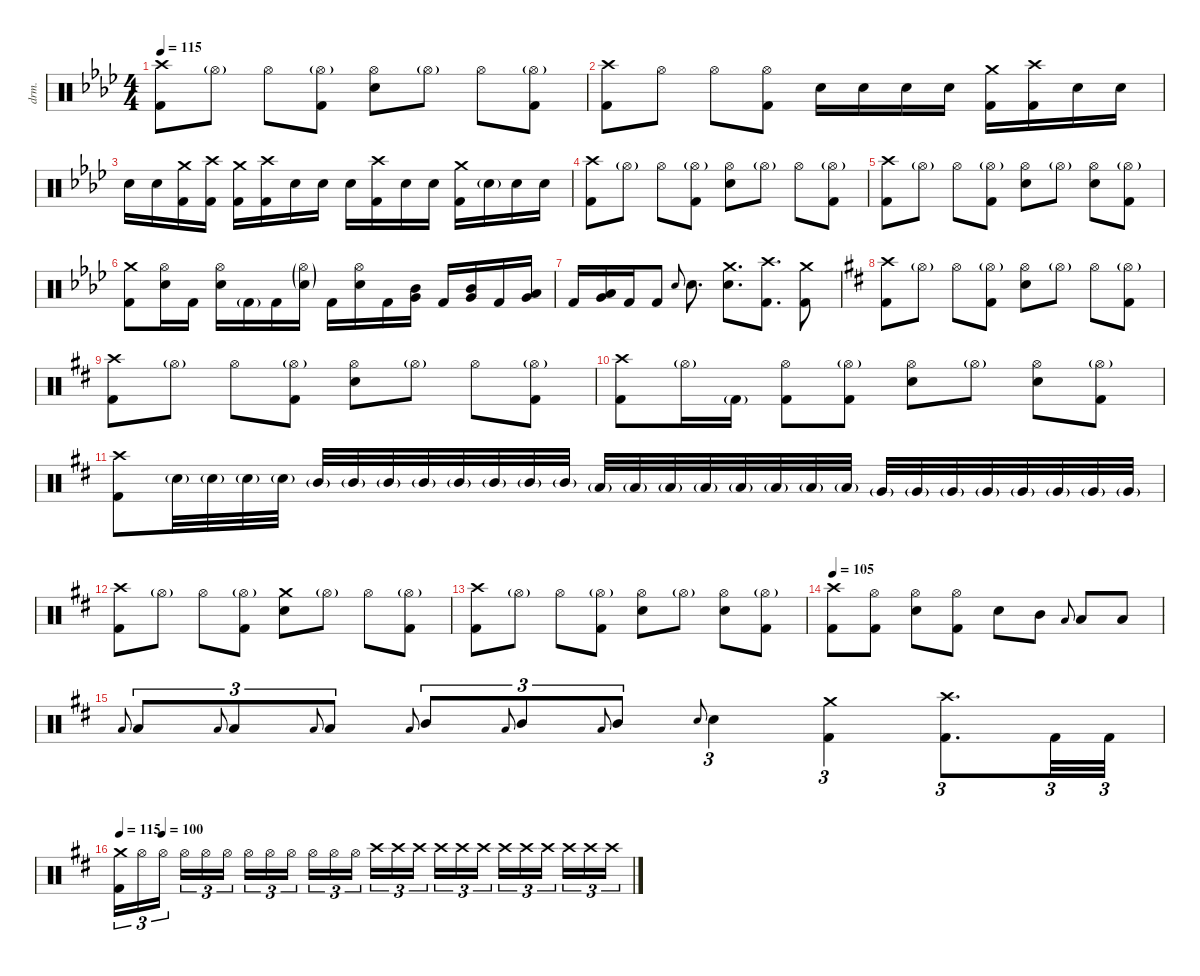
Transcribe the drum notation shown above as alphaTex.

\defaultSystemsLayout 4
\hideDynamics
\bracketExtendMode nobrackets
\track ("Atma Anur" "drm.") {solo instrument percussion}
\staff {score}
\articulation defaults
\ts (4 4)
\tempo 115
\clef neutral
\ks fminor
("Crash high (hit)"{acc forcenatural} "Kick (hit) 2"{acc forcenatural}).8{dy fff beam Down} "Hi-Hat (open)"{g acc forcenatural}.8{dy ff beam Down} "Hi-Hat (open)"{acc forcenatural}.8{dy fff beam Down} ("Hi-Hat (open)"{g acc forcenatural} "Kick (hit) 2"{acc forcenatural}).8{beam Down} ("Hi-Hat (open)"{acc forcenatural} "Snare (hit) 2"{acc forcenatural}).8{beam Down} "Hi-Hat (open)"{g acc forcenatural}.8{dy ff beam Down} "Hi-Hat (open)"{acc forcenatural}.8{dy fff beam Down} ("Hi-Hat (open)"{g acc forcenatural} "Kick (hit) 2"{acc forcenatural}).8{beam Down} |
("Crash high (hit)"{acc forcenatural} "Kick (hit) 2"{acc forcenatural}).8{beam Down} "Hi-Hat (open)"{acc forcenatural}.8{beam Down} "Hi-Hat (open)"{acc forcenatural}.8{beam Down} ("Hi-Hat (open)"{acc forcenatural} "Kick (hit) 2"{acc forcenatural}).8{beam Down} "Snare (hit) 2"{acc forcenatural}.16{beam Down} "Snare (hit) 2"{acc forcenatural}.16{beam Down} "Snare (hit) 2"{acc forcenatural}.16{beam Down} "Snare (hit) 2"{acc forcenatural}.16{beam Down} ("Crash medium (hit)"{acc forcenatural} "Kick (hit) 2"{acc forcenatural}).16{beam Down} ("Crash high (hit)"{acc forcenatural} "Kick (hit) 2"{acc forcenatural}).16{beam Down} "Snare (hit) 2"{acc forcenatural}.16{beam Down} "Snare (hit) 2"{acc forcenatural}.16{beam Down} |
"Snare (hit) 2"{acc forcenatural}.16{beam Down} "Snare (hit) 2"{acc forcenatural}.16{beam Down} ("Crash medium (hit)"{acc forcenatural} "Kick (hit) 2"{acc forcenatural}).16{beam Down} ("Crash high (hit)"{acc forcenatural} "Kick (hit) 2"{acc forcenatural}).16{beam Down} ("Crash medium (hit)"{acc forcenatural} "Kick (hit) 2"{acc forcenatural}).16{beam Down} ("Crash high (hit)"{acc forcenatural} "Kick (hit) 2"{acc forcenatural}).16{beam Down} "Snare (hit) 2"{acc forcenatural}.16{beam Down} "Snare (hit) 2"{acc forcenatural}.16{beam Down} "Snare (hit) 2"{acc forcenatural}.16{beam Down} ("Crash high (hit)"{acc forcenatural} "Kick (hit) 2"{acc forcenatural}).16{beam Down} "Snare (hit) 2"{acc forcenatural}.16{beam Down} "Snare (hit) 2"{acc forcenatural}.16{beam Down} ("Crash medium (hit)"{acc forcenatural} "Kick (hit) 2"{acc forcenatural}).16{beam Down} "Snare (hit) 2"{g acc forcenatural}.16{dy ff beam Down} "Snare (hit) 2"{acc forcenatural}.16{dy fff beam Down} "Snare (hit) 2"{acc forcenatural}.16{beam Down} |
("Crash high (hit)"{acc forcenatural} "Kick (hit) 2"{acc forcenatural}).8{beam Down} "Hi-Hat (open)"{g acc forcenatural}.8{dy ff beam Down} "Hi-Hat (open)"{acc forcenatural}.8{dy fff beam Down} ("Hi-Hat (open)"{g acc forcenatural} "Kick (hit) 2"{acc forcenatural}).8{beam Down} ("Hi-Hat (open)"{acc forcenatural} "Snare (hit) 2"{acc forcenatural}).8{beam Down} "Hi-Hat (open)"{g acc forcenatural}.8{dy ff beam Down} "Hi-Hat (open)"{acc forcenatural}.8{dy fff beam Down} ("Hi-Hat (open)"{g acc forcenatural} "Kick (hit) 2"{acc forcenatural}).8{beam Down} |
("Crash high (hit)"{acc forcenatural} "Kick (hit) 2"{acc forcenatural}).8{beam Down} "Hi-Hat (open)"{g acc forcenatural}.8{dy ff beam Down} "Hi-Hat (open)"{acc forcenatural}.8{dy fff beam Down} ("Hi-Hat (open)"{g acc forcenatural} "Kick (hit) 2"{acc forcenatural}).8{beam Down} ("Hi-Hat (open)"{acc forcenatural} "Snare (hit) 2"{acc forcenatural}).8{beam Down} "Hi-Hat (open)"{g acc forcenatural}.8{dy ff beam Down} ("Hi-Hat (open)"{acc forcenatural} "Snare (hit) 2"{acc forcenatural}).8{dy fff beam Down} ("Hi-Hat (open)"{g acc forcenatural} "Kick (hit) 2"{acc forcenatural}).8{beam Down} |
("Crash medium (hit)"{acc forcenatural} "Kick (hit) 2"{acc forcenatural}).8{beam Down} ("Hi-Hat (open)"{acc forcenatural} "Snare (hit) 2"{acc forcenatural}).16{beam Down} "Kick (hit) 2"{acc forcenatural}.16{beam Down} ("Hi-Hat (open)"{acc forcenatural} "Snare (hit) 2"{acc forcenatural}).16{beam Down} "Kick (hit) 2"{g acc forcenatural}.16{dy ff beam Down} "Kick (hit) 2"{acc forcenatural}.16{dy fff beam Down} ("Hi-Hat (open)"{g acc forcenatural} "Snare (hit) 2"{g acc forcenatural}).16{dy ff beam Down} "Kick (hit) 2"{acc forcenatural}.16{dy fff beam Down} ("Hi-Hat (open)"{acc forcenatural} "Snare (hit) 2"{acc forcenatural}).16{beam Down} "Kick (hit) 2"{acc forcenatural}.16{beam Down} ("Mid Tom (hit)"{acc forcenatural} "Very Low Tom (hit)"{acc forcenatural}).16{beam Down} "Kick (hit) 2"{acc forcenatural}.16{beam Up} ("Mid Tom (hit)"{acc forcenatural} "Very Low Tom (hit)"{acc forcenatural}).16{beam Up} "Kick (hit) 2"{acc forcenatural}.16{beam Up} ("Low Tom (hit)"{acc forcenatural} "Very Low Tom (hit)"{acc forcenatural}).16{beam Up} |
"Kick (hit) 2"{acc forcenatural}.16{beam Up} ("Low Tom (hit)"{acc forcenatural} "Very Low Tom (hit)"{acc forcenatural}).16{beam Up} "Kick (hit) 2"{acc forcenatural}.16{beam Up} "Kick (hit) 2"{acc forcenatural}.8{beam Up} "Electric Snare (hit)"{acc forcenatural}.8{gr onbeat dy ff beam Up} "Snare (hit) 2"{acc forcenatural}.8{d dy fff beam Down} ("Crash medium (hit)"{acc forcenatural} "Snare (hit) 2"{acc forcenatural}).8{d beam Down} ("Crash high (hit)"{acc forcenatural} "Kick (hit) 2"{acc forcenatural}).8{d beam Down} ("Crash medium (hit)"{acc forcenatural} "Kick (hit) 2"{acc forcenatural}).8{beam Down} |
\ks bminor
("Crash high (hit)"{acc forcenatural} "Kick (hit) 2"{acc forcenatural}).8{beam Down} "Hi-Hat (open)"{g acc forcenatural}.8{dy ff beam Down} "Hi-Hat (open)"{acc forcenatural}.8{dy fff beam Down} ("Hi-Hat (open)"{g acc forcenatural} "Kick (hit) 2"{acc forcenatural}).8{beam Down} ("Hi-Hat (open)"{acc forcenatural} "Snare (hit) 2"{acc forcenatural}).8{beam Down} "Hi-Hat (open)"{g acc forcenatural}.8{dy ff beam Down} "Hi-Hat (open)"{acc forcenatural}.8{dy fff beam Down} ("Hi-Hat (open)"{g acc forcenatural} "Kick (hit) 2"{acc forcenatural}).8{beam Down} |
("Crash high (hit)"{acc forcenatural} "Kick (hit) 2"{acc forcenatural}).8{beam Down} "Hi-Hat (open)"{g acc forcenatural}.8{dy ff beam Down} "Hi-Hat (open)"{acc forcenatural}.8{dy fff beam Down} ("Hi-Hat (open)"{g acc forcenatural} "Kick (hit) 2"{acc forcenatural}).8{beam Down} ("Hi-Hat (open)"{acc forcenatural} "Snare (hit) 2"{acc forcenatural}).8{beam Down} "Hi-Hat (open)"{g acc forcenatural}.8{dy ff beam Down} "Hi-Hat (open)"{acc forcenatural}.8{dy fff beam Down} ("Hi-Hat (open)"{g acc forcenatural} "Kick (hit) 2"{acc forcenatural}).8{beam Down} |
("Crash high (hit)"{acc forcenatural} "Kick (hit) 2"{acc forcenatural}).8{beam Down} "Hi-Hat (open)"{g acc forcenatural}.16{dy ff beam Down} "Kick (hit) 2"{g acc forcenatural}.16{beam Down} ("Hi-Hat (open)"{acc forcenatural} "Kick (hit) 2"{acc forcenatural}).8{dy fff beam Down} ("Hi-Hat (open)"{g acc forcenatural} "Kick (hit) 2"{acc forcenatural}).8{beam Down} ("Hi-Hat (open)"{acc forcenatural} "Snare (hit) 2"{acc forcenatural}).8{beam Down} "Hi-Hat (open)"{g acc forcenatural}.8{dy ff beam Down} ("Hi-Hat (open)"{acc forcenatural} "Snare (hit) 2"{acc forcenatural}).8{dy fff beam Down} ("Hi-Hat (open)"{g acc forcenatural} "Kick (hit) 2"{acc forcenatural}).8{beam Down} |
("Crash high (hit)"{acc forcenatural} "Kick (hit) 2"{acc forcenatural}).8{beam Down} "Snare (hit) 2"{g acc forcenatural}.32{dy ff beam Down} "Snare (hit) 2"{g acc forcenatural}.32{beam Down} "Snare (hit) 2"{g acc forcenatural}.32{beam Down} "Snare (hit) 2"{g acc forcenatural}.32{beam Down} "Mid Tom (hit)"{g acc forcenatural}.32{beam Up} "Mid Tom (hit)"{g acc forcenatural}.32{beam Up} "Mid Tom (hit)"{g acc forcenatural}.32{beam Up} "Mid Tom (hit)"{g acc forcenatural}.32{beam Up} "Mid Tom (hit)"{g acc forcenatural}.32{beam Up} "Mid Tom (hit)"{g acc forcenatural}.32{beam Up} "Mid Tom (hit)"{g acc forcenatural}.32{beam Up} "Mid Tom (hit)"{g acc forcenatural}.32{beam Up} "Low Tom (hit)"{g acc forcenatural}.32{beam Up} "Low Tom (hit)"{g acc forcenatural}.32{beam Up} "Low Tom (hit)"{g acc forcenatural}.32{beam Up} "Low Tom (hit)"{g acc forcenatural}.32{beam Up} "Low Tom (hit)"{g acc forcenatural}.32{beam Up} "Low Tom (hit)"{g acc forcenatural}.32{beam Up} "Low Tom (hit)"{g acc forcenatural}.32{beam Up} "Low Tom (hit)"{g acc forcenatural}.32{beam Up} "Very Low Tom (hit)"{g acc forcenatural}.32{beam Up} "Very Low Tom (hit)"{g acc forcenatural}.32{beam Up} "Very Low Tom (hit)"{g acc forcenatural}.32{beam Up} "Very Low Tom (hit)"{g acc forcenatural}.32{beam Up} "Very Low Tom (hit)"{g acc forcenatural}.32{beam Up} "Very Low Tom (hit)"{g acc forcenatural}.32{beam Up} "Very Low Tom (hit)"{g acc forcenatural}.32{beam Up} "Very Low Tom (hit)"{g acc forcenatural}.32{beam Up} |
("Crash high (hit)"{acc forcenatural} "Kick (hit) 2"{acc forcenatural}).8{dy fff beam Down} "Hi-Hat (open)"{g acc forcenatural}.8{dy ff beam Down} "Hi-Hat (open)"{acc forcenatural}.8{dy fff beam Down} ("Hi-Hat (open)"{g acc forcenatural} "Kick (hit) 2"{acc forcenatural}).8{beam Down} ("Crash medium (hit)"{acc forcenatural} "Snare (hit) 2"{acc forcenatural}).8{beam Down} "Hi-Hat (open)"{g acc forcenatural}.8{dy ff beam Down} "Hi-Hat (open)"{acc forcenatural}.8{dy fff beam Down} ("Hi-Hat (open)"{g acc forcenatural} "Kick (hit) 2"{acc forcenatural}).8{beam Down} |
("Crash high (hit)"{acc forcenatural} "Kick (hit) 2"{acc forcenatural}).8{beam Down} "Hi-Hat (open)"{g acc forcenatural}.8{dy ff beam Down} "Hi-Hat (open)"{acc forcenatural}.8{dy fff beam Down} ("Hi-Hat (open)"{g acc forcenatural} "Kick (hit) 2"{acc forcenatural}).8{beam Down} ("Hi-Hat (open)"{acc forcenatural} "Snare (hit) 2"{acc forcenatural}).8{beam Down} "Hi-Hat (open)"{g acc forcenatural}.8{dy ff beam Down} ("Hi-Hat (open)"{acc forcenatural} "Snare (hit) 2"{acc forcenatural}).8{dy fff beam Down} ("Hi-Hat (open)"{g acc forcenatural} "Kick (hit) 2"{acc forcenatural}).8{beam Down} |
\tempo 105
("Crash high (hit)"{acc forcenatural} "Kick (hit) 2"{acc forcenatural}).8{beam Down} ("Hi-Hat (open)"{acc forcenatural} "Kick (hit) 2"{acc forcenatural}).8{beam Down} ("Hi-Hat (open)"{acc forcenatural} "Snare (hit) 2"{acc forcenatural}).8{beam Down} ("Hi-Hat (open)"{acc forcenatural} "Kick (hit) 2"{acc forcenatural}).8{beam Down} "Snare (hit) 2"{acc forcenatural}.8{beam Down} "Mid Tom (hit)"{acc forcenatural}.8{beam Down} "Low Tom (hit)"{acc forcenatural}.8{gr onbeat dy ff beam Up} "Low Tom (hit)"{acc forcenatural}.8{dy fff beam Up} "Low Tom (hit)"{acc forcenatural}.8{beam Up} |
"Low Tom (hit)"{acc forcenatural}.8{gr onbeat dy ff beam Up} "Low Tom (hit)"{acc forcenatural}.8{tu (3 2) dy fff beam Up} "Low Tom (hit)"{acc forcenatural}.8{gr onbeat dy ff beam Up} "Low Tom (hit)"{acc forcenatural}.8{tu (3 2) dy fff beam Up} "Low Tom (hit)"{acc forcenatural}.8{gr onbeat dy ff beam Up} "Low Tom (hit)"{acc forcenatural}.8{tu (3 2) dy fff beam Up} "Low Tom (hit)"{acc forcenatural}.8{gr onbeat dy ff beam Up} "Mid Tom (hit)"{acc forcenatural}.8{tu (3 2) dy fff beam Up} "Low Tom (hit)"{acc forcenatural}.8{gr onbeat dy ff beam Up} "Mid Tom (hit)"{acc forcenatural}.8{tu (3 2) dy fff beam Up} "Low Tom (hit)"{acc forcenatural}.8{gr onbeat dy ff beam Up} "Mid Tom (hit)"{acc forcenatural}.8{tu (3 2) dy fff beam Up} "Electric Snare (hit)"{acc forcenatural}.8{gr onbeat dy ff beam Up} "Snare (hit) 2"{acc forcenatural}.4{tu (3 2) dy fff beam Down} ("Crash medium (hit)"{acc forcenatural} "Kick (hit) 2"{acc forcenatural}).4{tu (3 2) beam Down} ("Crash high (hit)"{acc forcenatural} "Kick (hit) 2"{acc forcenatural}).8{d tu (3 2) beam Down} "Kick (hit) 2"{acc forcenatural}.32{tu (3 2) beam Down} "Kick (hit) 2"{acc forcenatural}.32{tu (3 2) beam Down} |
\tempo 115
\tempo (100 0.0833333)
("Crash medium (hit)"{acc forcenatural} "Kick (hit) 2"{acc forcenatural}).16{tu (3 2) beam Down} "Hi-Hat (open)"{acc forcenatural}.16{tu (3 2) dy pp beam Down} "Hi-Hat (open)"{acc forcenatural}.16{tu (3 2) beam Down} "Hi-Hat (open)"{acc forcenatural}.16{tu (3 2) beam Down} "Hi-Hat (open)"{acc forcenatural}.16{tu (3 2) dy p beam Down} "Hi-Hat (open)"{acc forcenatural}.16{tu (3 2) beam Down} "Hi-Hat (open)"{acc forcenatural}.16{tu (3 2) dy mp beam Down} "Hi-Hat (open)"{acc forcenatural}.16{tu (3 2) dy mf beam Down} "Hi-Hat (open)"{acc forcenatural}.16{tu (3 2) dy f beam Down} "Hi-Hat (open)"{acc forcenatural}.16{tu (3 2) dy mf beam Down} "Hi-Hat (open)"{acc forcenatural}.16{tu (3 2) beam Down} "Hi-Hat (open)"{acc forcenatural}.16{tu (3 2) beam Down} "Crash high (hit)"{acc forcenatural}.16{tu (3 2) dy mp beam Down} "Crash high (hit)"{acc forcenatural}.16{tu (3 2) dy p beam Down} "Crash high (hit)"{acc forcenatural}.16{tu (3 2) beam Down} "Crash high (hit)"{acc forcenatural}.16{tu (3 2) dy mp beam Down} "Crash high (hit)"{acc forcenatural}.16{tu (3 2) beam Down} "Crash high (hit)"{acc forcenatural}.16{tu (3 2) dy mf beam Down} "Crash high (hit)"{acc forcenatural}.16{tu (3 2) beam Down} "Crash high (hit)"{acc forcenatural}.16{tu (3 2) beam Down} "Crash high (hit)"{acc forcenatural}.16{tu (3 2) dy f beam Down} "Crash high (hit)"{acc forcenatural}.16{tu (3 2) beam Down} "Crash high (hit)"{acc forcenatural}.16{tu (3 2) dy ff beam Down} "Crash high (hit)"{acc forcenatural}.16{tu (3 2) dy fff beam Down}
